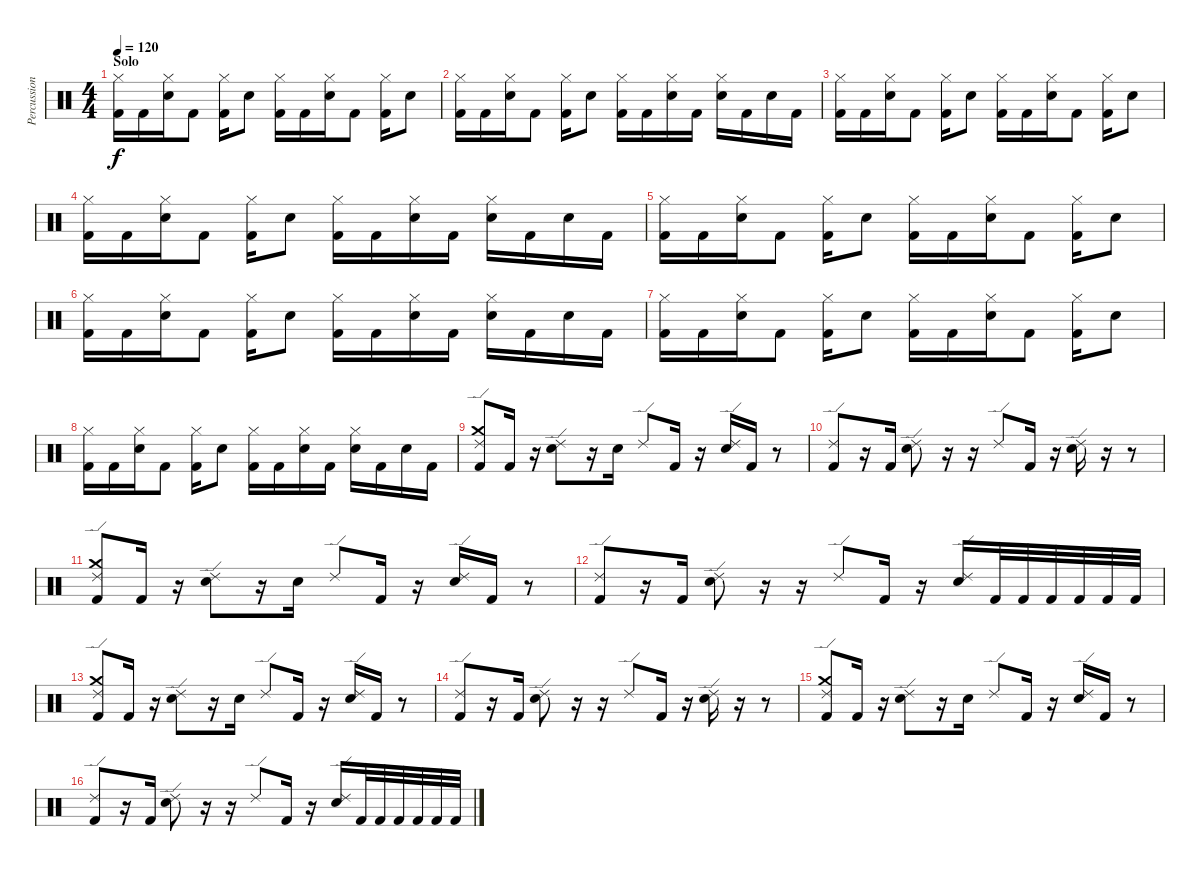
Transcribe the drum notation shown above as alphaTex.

\track ("Percussions" "Percussion") {instrument percussion}
\staff {score}
\articulation defaults
\ts (4 4)
\section ("" "Solo")
\tempo 120
\clef neutral
\ks c
("Hi-Hat (closed)" "Kick (hit) 2").16{dy f} "Kick (hit) 2".16 ("Hi-Hat (closed)" "Electric Snare (hit)").16 "Kick (hit) 2".8 ("Hi-Hat (closed)" "Kick (hit) 2").16 "Electric Snare (hit)".8 ("Hi-Hat (closed)" "Kick (hit) 2").16 "Kick (hit) 2".16 ("Hi-Hat (closed)" "Electric Snare (hit)").16 "Kick (hit) 2".8 ("Hi-Hat (closed)" "Kick (hit) 2").16 "Electric Snare (hit)".8 |
("Hi-Hat (closed)" "Kick (hit) 2").16 "Kick (hit) 2".16 ("Hi-Hat (closed)" "Electric Snare (hit)").16 "Kick (hit) 2".8 ("Hi-Hat (closed)" "Kick (hit) 2").16 "Electric Snare (hit)".8 ("Hi-Hat (closed)" "Kick (hit) 2").16 "Kick (hit) 2".16 ("Hi-Hat (closed)" "Electric Snare (hit)").16 "Kick (hit) 2".16 ("Hi-Hat (closed)" "Electric Snare (hit)").16 "Kick (hit) 2".16 "Electric Snare (hit)".16 "Kick (hit) 2".16 |
("Hi-Hat (closed)" "Kick (hit) 2").16 "Kick (hit) 2".16 ("Hi-Hat (closed)" "Electric Snare (hit)").16 "Kick (hit) 2".8 ("Hi-Hat (closed)" "Kick (hit) 2").16 "Electric Snare (hit)".8 ("Hi-Hat (closed)" "Kick (hit) 2").16 "Kick (hit) 2".16 ("Hi-Hat (closed)" "Electric Snare (hit)").16 "Kick (hit) 2".8 ("Hi-Hat (closed)" "Kick (hit) 2").16 "Electric Snare (hit)".8 |
("Hi-Hat (closed)" "Kick (hit) 2").16 "Kick (hit) 2".16 ("Hi-Hat (closed)" "Electric Snare (hit)").16 "Kick (hit) 2".8 ("Hi-Hat (closed)" "Kick (hit) 2").16 "Electric Snare (hit)".8 ("Hi-Hat (closed)" "Kick (hit) 2").16 "Kick (hit) 2".16 ("Hi-Hat (closed)" "Electric Snare (hit)").16 "Kick (hit) 2".16 ("Hi-Hat (closed)" "Electric Snare (hit)").16 "Kick (hit) 2".16 "Electric Snare (hit)".16 "Kick (hit) 2".16 |
("Hi-Hat (closed)" "Kick (hit) 2").16 "Kick (hit) 2".16 ("Hi-Hat (closed)" "Electric Snare (hit)").16 "Kick (hit) 2".8 ("Hi-Hat (closed)" "Kick (hit) 2").16 "Electric Snare (hit)".8 ("Hi-Hat (closed)" "Kick (hit) 2").16 "Kick (hit) 2".16 ("Hi-Hat (closed)" "Electric Snare (hit)").16 "Kick (hit) 2".8 ("Hi-Hat (closed)" "Kick (hit) 2").16 "Electric Snare (hit)".8 |
("Hi-Hat (closed)" "Kick (hit) 2").16 "Kick (hit) 2".16 ("Hi-Hat (closed)" "Electric Snare (hit)").16 "Kick (hit) 2".8 ("Hi-Hat (closed)" "Kick (hit) 2").16 "Electric Snare (hit)".8 ("Hi-Hat (closed)" "Kick (hit) 2").16 "Kick (hit) 2".16 ("Hi-Hat (closed)" "Electric Snare (hit)").16 "Kick (hit) 2".16 ("Hi-Hat (closed)" "Electric Snare (hit)").16 "Kick (hit) 2".16 "Electric Snare (hit)".16 "Kick (hit) 2".16 |
("Hi-Hat (closed)" "Kick (hit) 2").16 "Kick (hit) 2".16 ("Hi-Hat (closed)" "Electric Snare (hit)").16 "Kick (hit) 2".8 ("Hi-Hat (closed)" "Kick (hit) 2").16 "Electric Snare (hit)".8 ("Hi-Hat (closed)" "Kick (hit) 2").16 "Kick (hit) 2".16 ("Hi-Hat (closed)" "Electric Snare (hit)").16 "Kick (hit) 2".8 ("Hi-Hat (closed)" "Kick (hit) 2").16 "Electric Snare (hit)".8 |
("Hi-Hat (closed)" "Kick (hit) 2").16 "Kick (hit) 2".16 ("Hi-Hat (closed)" "Electric Snare (hit)").16 "Kick (hit) 2".8 ("Hi-Hat (closed)" "Kick (hit) 2").16 "Electric Snare (hit)".8 ("Hi-Hat (closed)" "Kick (hit) 2").16 "Kick (hit) 2".16 ("Hi-Hat (closed)" "Electric Snare (hit)").16 "Kick (hit) 2".16 ("Hi-Hat (closed)" "Electric Snare (hit)").16 "Kick (hit) 2".16 "Electric Snare (hit)".16 "Kick (hit) 2".16 |
("Crash medium (hit)" "Ride (edge) 2" "Kick (hit) 2").8 "Kick (hit) 2".16 r.16 ("Ride (edge) 2" "Electric Snare (hit)").8 r.16 "Electric Snare (hit)".16 "Ride (edge) 2".8 "Kick (hit) 2".16 r.16 ("Ride (edge) 2" "Electric Snare (hit)").16 "Kick (hit) 2".16 r.8 |
("Ride (edge) 2" "Kick (hit) 2").8 r.16 "Kick (hit) 2".16 ("Ride (edge) 2" "Electric Snare (hit)").8 r.16 r.16 "Ride (edge) 2".8 "Kick (hit) 2".16 r.16 ("Ride (edge) 2" "Electric Snare (hit)").16 r.16 r.8 |
("Crash medium (hit)" "Ride (edge) 2" "Kick (hit) 2").8 "Kick (hit) 2".16 r.16 ("Ride (edge) 2" "Electric Snare (hit)").8 r.16 "Electric Snare (hit)".16 "Ride (edge) 2".8 "Kick (hit) 2".16 r.16 ("Ride (edge) 2" "Electric Snare (hit)").16 "Kick (hit) 2".16 r.8 |
("Ride (edge) 2" "Kick (hit) 2").8 r.16 "Kick (hit) 2".16 ("Ride (edge) 2" "Electric Snare (hit)").8 r.16 r.16 "Ride (edge) 2".8 "Kick (hit) 2".16 r.16 ("Ride (edge) 2" "Electric Snare (hit)").16 "Kick (hit) 2".32 "Kick (hit) 2".32 "Kick (hit) 2".32 "Kick (hit) 2".32 "Kick (hit) 2".32 "Kick (hit) 2".32 |
("Crash medium (hit)" "Ride (edge) 2" "Kick (hit) 2").8 "Kick (hit) 2".16 r.16 ("Ride (edge) 2" "Electric Snare (hit)").8 r.16 "Electric Snare (hit)".16 "Ride (edge) 2".8 "Kick (hit) 2".16 r.16 ("Ride (edge) 2" "Electric Snare (hit)").16 "Kick (hit) 2".16 r.8 |
("Ride (edge) 2" "Kick (hit) 2").8 r.16 "Kick (hit) 2".16 ("Ride (edge) 2" "Electric Snare (hit)").8 r.16 r.16 "Ride (edge) 2".8 "Kick (hit) 2".16 r.16 ("Ride (edge) 2" "Electric Snare (hit)").16 r.16 r.8 |
("Crash medium (hit)" "Ride (edge) 2" "Kick (hit) 2").8 "Kick (hit) 2".16 r.16 ("Ride (edge) 2" "Electric Snare (hit)").8 r.16 "Electric Snare (hit)".16 "Ride (edge) 2".8 "Kick (hit) 2".16 r.16 ("Ride (edge) 2" "Electric Snare (hit)").16 "Kick (hit) 2".16 r.8 |
("Ride (edge) 2" "Kick (hit) 2").8 r.16 "Kick (hit) 2".16 ("Ride (edge) 2" "Electric Snare (hit)").8 r.16 r.16 "Ride (edge) 2".8 "Kick (hit) 2".16 r.16 ("Ride (edge) 2" "Electric Snare (hit)").16 "Kick (hit) 2".32 "Kick (hit) 2".32 "Kick (hit) 2".32 "Kick (hit) 2".32 "Kick (hit) 2".32 "Kick (hit) 2".32
